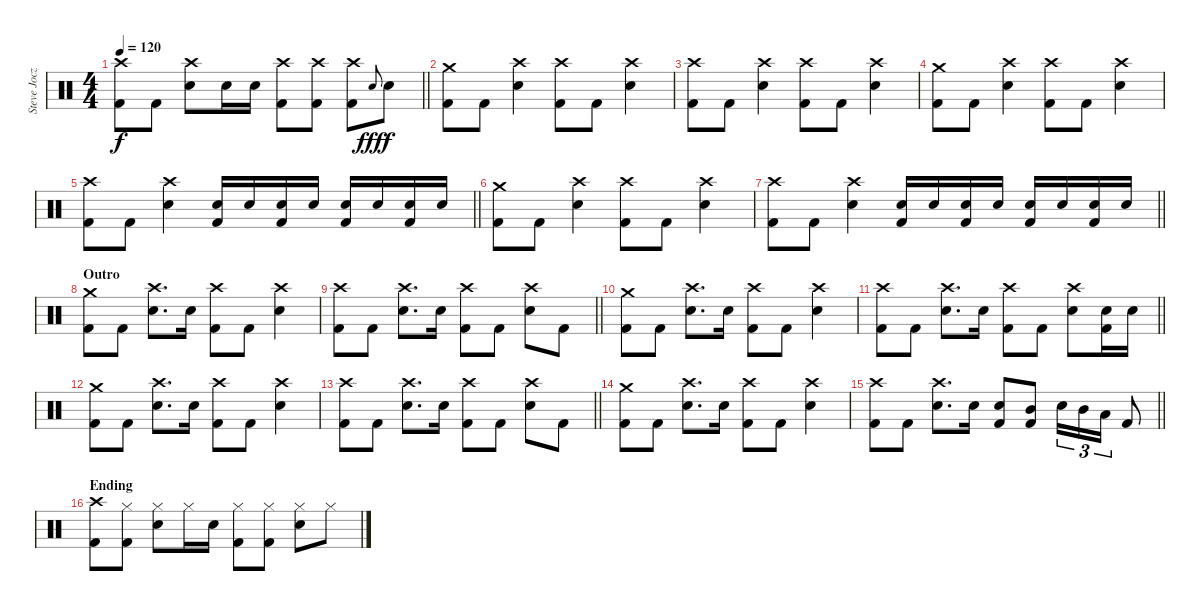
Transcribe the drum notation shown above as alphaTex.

\track ("Steve Jocz" "Steve Jocz") {instrument percussion}
\staff {score}
\articulation defaults
\ts (4 4)
\tempo 120
\clef neutral
\barLineRight lightlight
\ks c
("Crash high (hit)" "Kick (hit) 2").8{dy f} "Kick (hit) 2".8 ("Crash high (hit)" "Snare (hit) 2").8 "Snare (hit) 2".16 "Snare (hit) 2".16 ("Crash high (hit)" "Kick (hit) 2").8 ("Crash high (hit)" "Kick (hit) 2").8 ("Crash high (hit)" "Kick (hit) 2").8 "Snare (hit) 2".8{gr onbeat dy fff} "Snare (hit) 2".8{dy f} |
("Crash medium (hit)" "Kick (hit) 2").8 "Kick (hit) 2".8 ("Crash high (hit)" "Snare (hit) 2").4 ("Crash high (hit)" "Kick (hit) 2").8 "Kick (hit) 2".8 ("Crash high (hit)" "Snare (hit) 2").4 |
("Crash high (hit)" "Kick (hit) 2").8 "Kick (hit) 2".8 ("Crash high (hit)" "Snare (hit) 2").4 ("Crash high (hit)" "Kick (hit) 2").8 "Kick (hit) 2".8 ("Crash high (hit)" "Snare (hit) 2").4 |
("Crash medium (hit)" "Kick (hit) 2").8 "Kick (hit) 2".8 ("Crash high (hit)" "Snare (hit) 2").4 ("Crash high (hit)" "Kick (hit) 2").8 "Kick (hit) 2".8 ("Crash high (hit)" "Snare (hit) 2").4 |
\barLineRight lightlight
("Crash high (hit)" "Kick (hit) 2").8 "Kick (hit) 2".8 ("Crash high (hit)" "Snare (hit) 2").4 ("Snare (hit) 2" "Kick (hit) 2").16 "Snare (hit) 2".16 ("Snare (hit) 2" "Kick (hit) 2").16 "Snare (hit) 2".16 ("Snare (hit) 2" "Kick (hit) 2").16 "Snare (hit) 2".16 ("Snare (hit) 2" "Kick (hit) 2").16 "Snare (hit) 2".16 |
("Crash medium (hit)" "Kick (hit) 2").8 "Kick (hit) 2".8 ("Crash high (hit)" "Snare (hit) 2").4 ("Crash high (hit)" "Kick (hit) 2").8 "Kick (hit) 2".8 ("Crash high (hit)" "Snare (hit) 2").4 |
\barLineRight lightlight
("Crash high (hit)" "Kick (hit) 2").8 "Kick (hit) 2".8 ("Crash high (hit)" "Snare (hit) 2").4 ("Snare (hit) 2" "Kick (hit) 2").16 "Snare (hit) 2".16 ("Snare (hit) 2" "Kick (hit) 2").16 "Snare (hit) 2".16 ("Snare (hit) 2" "Kick (hit) 2").16 "Snare (hit) 2".16 ("Snare (hit) 2" "Kick (hit) 2").16 "Snare (hit) 2".16 |
\section ("" "Outro")
("Crash medium (hit)" "Kick (hit) 2").8 "Kick (hit) 2".8 ("Crash high (hit)" "Snare (hit) 2").8{d} "Snare (hit) 2".16 ("Crash high (hit)" "Kick (hit) 2").8 "Kick (hit) 2".8 ("Crash high (hit)" "Snare (hit) 2").4 |
\barLineRight lightlight
("Crash high (hit)" "Kick (hit) 2").8 "Kick (hit) 2".8 ("Crash high (hit)" "Snare (hit) 2").8{d} "Snare (hit) 2".16 ("Crash high (hit)" "Kick (hit) 2").8 "Kick (hit) 2".8 ("Crash high (hit)" "Snare (hit) 2").8 "Kick (hit) 2".8 |
("Crash medium (hit)" "Kick (hit) 2").8 "Kick (hit) 2".8 ("Crash high (hit)" "Snare (hit) 2").8{d} "Snare (hit) 2".16 ("Crash high (hit)" "Kick (hit) 2").8 "Kick (hit) 2".8 ("Crash high (hit)" "Snare (hit) 2").4 |
\barLineRight lightlight
("Crash high (hit)" "Kick (hit) 2").8 "Kick (hit) 2".8 ("Crash high (hit)" "Snare (hit) 2").8{d} "Snare (hit) 2".16 ("Crash high (hit)" "Kick (hit) 2").8 "Kick (hit) 2".8 ("Crash high (hit)" "Snare (hit) 2").8 ("Snare (hit) 2" "Kick (hit) 2").16 "Snare (hit) 2".16 |
("Crash medium (hit)" "Kick (hit) 2").8 "Kick (hit) 2".8 ("Crash high (hit)" "Snare (hit) 2").8{d} "Snare (hit) 2".16 ("Crash high (hit)" "Kick (hit) 2").8 "Kick (hit) 2".8 ("Crash high (hit)" "Snare (hit) 2").4 |
\barLineRight lightlight
("Crash high (hit)" "Kick (hit) 2").8 "Kick (hit) 2".8 ("Crash high (hit)" "Snare (hit) 2").8{d} "Snare (hit) 2".16 ("Crash high (hit)" "Kick (hit) 2").8 "Kick (hit) 2".8 ("Crash high (hit)" "Snare (hit) 2").8 "Kick (hit) 2".8 |
("Crash medium (hit)" "Kick (hit) 2").8 "Kick (hit) 2".8 ("Crash high (hit)" "Snare (hit) 2").8{d} "Snare (hit) 2".16 ("Crash high (hit)" "Kick (hit) 2").8 "Kick (hit) 2".8 ("Crash high (hit)" "Snare (hit) 2").4 |
\barLineRight lightlight
("Crash high (hit)" "Kick (hit) 2").8 "Kick (hit) 2".8 ("Crash high (hit)" "Snare (hit) 2").8{d} "Snare (hit) 2".16 ("Snare (hit) 2" "Kick (hit) 2").8 ("Mid Tom (hit)" "Kick (hit) 2").8 "Snare (hit) 2".16{tu (3 2)} "Mid Tom (hit)".16{tu (3 2)} "Low Tom (hit)".16{tu (3 2)} "Kick (hit) 2".8 |
\section ("" "Ending")
("Crash high (hit)" "Kick (hit) 2").8 ("Hi-Hat (closed)" "Kick (hit) 2").8 ("Hi-Hat (closed)" "Snare (hit) 2").8 "Hi-Hat (closed)".16 "Snare (hit) 2".16 ("Hi-Hat (closed)" "Kick (hit) 2").8 ("Hi-Hat (closed)" "Kick (hit) 2").8 ("Hi-Hat (closed)" "Snare (hit) 2").8 "Hi-Hat (closed)".8
